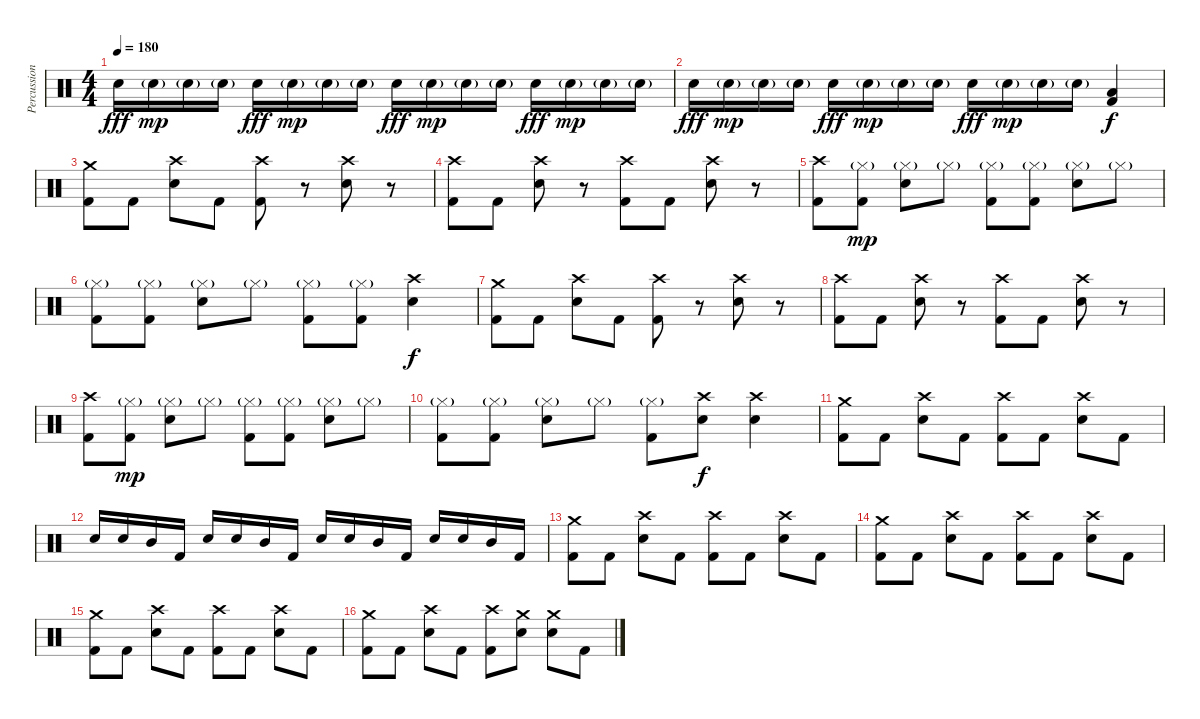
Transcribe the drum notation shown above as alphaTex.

\track ("Percussion" "Percussion") {instrument percussion}
\staff {score}
\articulation defaults
\ts (4 4)
\tempo 180
\clef neutral
\ks c "Electric Snare (hit)".16{dy fff} "Electric Snare (hit)"{g}.16{dy mp} "Electric Snare (hit)"{g}.16 "Electric Snare (hit)"{g}.16 "Electric Snare (hit)".16{dy fff} "Electric Snare (hit)"{g}.16{dy mp} "Electric Snare (hit)"{g}.16 "Electric Snare (hit)"{g}.16 "Electric Snare (hit)".16{dy fff} "Electric Snare (hit)"{g}.16{dy mp} "Electric Snare (hit)"{g}.16 "Electric Snare (hit)"{g}.16 "Electric Snare (hit)".16{dy fff} "Electric Snare (hit)"{g}.16{dy mp} "Electric Snare (hit)"{g}.16 "Electric Snare (hit)"{g}.16
|
"Electric Snare (hit)".16{dy fff} "Electric Snare (hit)"{g}.16{dy mp} "Electric Snare (hit)"{g}.16 "Electric Snare (hit)"{g}.16 "Electric Snare (hit)".16{dy fff} "Electric Snare (hit)"{g}.16{dy mp} "Electric Snare (hit)"{g}.16 "Electric Snare (hit)"{g}.16 "Electric Snare (hit)".16{dy fff} "Electric Snare (hit)"{g}.16{dy mp} "Electric Snare (hit)"{g}.16 "Electric Snare (hit)"{g}.16 ("Low Floor Tom (hit)" "Kick (hit) 2").4{dy f} |
("Crash medium (hit)" "Kick (hit) 2").8 "Kick (hit) 2".8 ("Crash high (hit)" "Electric Snare (hit)").8 "Kick (hit) 2".8 ("Crash high (hit)" "Kick (hit) 2").8 r.8 ("Crash high (hit)" "Electric Snare (hit)").8 r.8 |
("Crash high (hit)" "Kick (hit) 2").8 "Kick (hit) 2".8 ("Crash high (hit)" "Electric Snare (hit)").8 r.8 ("Crash high (hit)" "Kick (hit) 2").8 "Kick (hit) 2".8 ("Crash high (hit)" "Electric Snare (hit)").8 r.8 |
("Crash high (hit)" "Kick (hit) 2").8 ("Hi-Hat (closed)"{g} "Kick (hit) 2").8{dy mp} ("Hi-Hat (closed)"{g} "Electric Snare (hit)").8 "Hi-Hat (closed)"{g}.8 ("Hi-Hat (closed)"{g} "Kick (hit) 2").8 ("Hi-Hat (closed)"{g} "Kick (hit) 2").8 ("Hi-Hat (closed)"{g} "Electric Snare (hit)").8 "Hi-Hat (closed)"{g}.8 |
("Hi-Hat (closed)"{g} "Kick (hit) 2").8 ("Hi-Hat (closed)"{g} "Kick (hit) 2").8 ("Hi-Hat (closed)"{g} "Electric Snare (hit)").8 "Hi-Hat (closed)"{g}.8 ("Hi-Hat (closed)"{g} "Kick (hit) 2").8 ("Hi-Hat (closed)"{g} "Kick (hit) 2").8 ("Crash high (hit)" "Electric Snare (hit)").4{dy f} |
("Crash medium (hit)" "Kick (hit) 2").8 "Kick (hit) 2".8 ("Crash high (hit)" "Electric Snare (hit)").8 "Kick (hit) 2".8 ("Crash high (hit)" "Kick (hit) 2").8 r.8 ("Crash high (hit)" "Electric Snare (hit)").8 r.8 |
("Crash high (hit)" "Kick (hit) 2").8 "Kick (hit) 2".8 ("Crash high (hit)" "Electric Snare (hit)").8 r.8 ("Crash high (hit)" "Kick (hit) 2").8 "Kick (hit) 2".8 ("Crash high (hit)" "Electric Snare (hit)").8 r.8 |
("Crash high (hit)" "Kick (hit) 2").8 ("Hi-Hat (closed)"{g} "Kick (hit) 2").8{dy mp} ("Hi-Hat (closed)"{g} "Electric Snare (hit)").8 "Hi-Hat (closed)"{g}.8 ("Hi-Hat (closed)"{g} "Kick (hit) 2").8 ("Hi-Hat (closed)"{g} "Kick (hit) 2").8 ("Hi-Hat (closed)"{g} "Electric Snare (hit)").8 "Hi-Hat (closed)"{g}.8 |
("Hi-Hat (closed)"{g} "Kick (hit) 2").8 ("Hi-Hat (closed)"{g} "Kick (hit) 2").8 ("Hi-Hat (closed)"{g} "Electric Snare (hit)").8 "Hi-Hat (closed)"{g}.8 ("Hi-Hat (closed)"{g} "Kick (hit) 2").8 ("Crash high (hit)" "Electric Snare (hit)").8{dy f} ("Crash high (hit)" "Electric Snare (hit)").4 |
("Crash medium (hit)" "Kick (hit) 2").8 "Kick (hit) 2".8 ("Crash high (hit)" "Electric Snare (hit)").8 "Kick (hit) 2".8 ("Crash high (hit)" "Kick (hit) 2").8 "Kick (hit) 2".8 ("Crash high (hit)" "Electric Snare (hit)").8 "Kick (hit) 2".8 |
"Electric Snare (hit)".16 "Electric Snare (hit)".16 "Mid Tom (hit)".16 "Kick (hit) 2".16 "Electric Snare (hit)".16 "Electric Snare (hit)".16 "Mid Tom (hit)".16 "Kick (hit) 2".16 "Electric Snare (hit)".16 "Electric Snare (hit)".16 "Mid Tom (hit)".16 "Kick (hit) 2".16 "Electric Snare (hit)".16 "Electric Snare (hit)".16 "Mid Tom (hit)".16 "Kick (hit) 2".16 |
("Crash medium (hit)" "Kick (hit) 2").8 "Kick (hit) 2".8 ("Crash high (hit)" "Electric Snare (hit)").8 "Kick (hit) 2".8 ("Crash high (hit)" "Kick (hit) 2").8 "Kick (hit) 2".8 ("Crash high (hit)" "Electric Snare (hit)").8 "Kick (hit) 2".8 |
("Crash medium (hit)" "Kick (hit) 2").8 "Kick (hit) 2".8 ("Crash high (hit)" "Electric Snare (hit)").8 "Kick (hit) 2".8 ("Crash high (hit)" "Kick (hit) 2").8 "Kick (hit) 2".8 ("Crash high (hit)" "Electric Snare (hit)").8 "Kick (hit) 2".8 |
("Crash medium (hit)" "Kick (hit) 2").8 "Kick (hit) 2".8 ("Crash high (hit)" "Electric Snare (hit)").8 "Kick (hit) 2".8 ("Crash high (hit)" "Kick (hit) 2").8 "Kick (hit) 2".8 ("Crash high (hit)" "Electric Snare (hit)").8 "Kick (hit) 2".8 |
("Crash medium (hit)" "Kick (hit) 2").8 "Kick (hit) 2".8 ("Crash high (hit)" "Electric Snare (hit)").8 "Kick (hit) 2".8 ("Crash high (hit)" "Kick (hit) 2").8 ("Crash medium (hit)" "Electric Snare (hit)").8 ("Crash medium (hit)" "Electric Snare (hit)").8 "Kick (hit) 2".8
